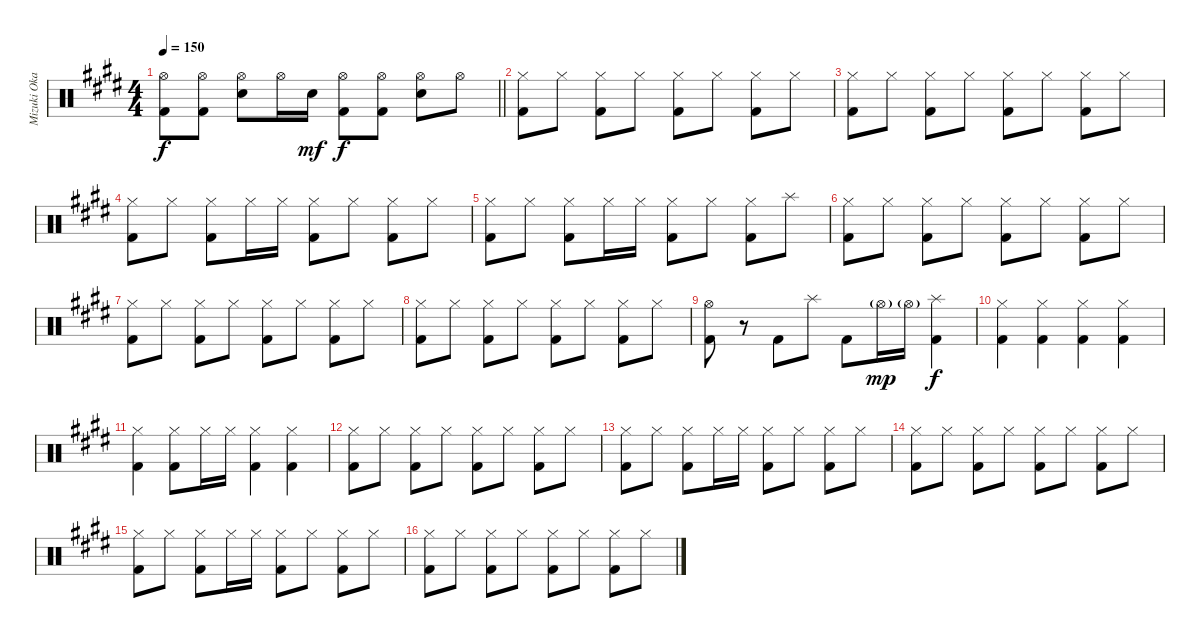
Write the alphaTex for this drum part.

\track ("Mizuki Okajima (Drums)" "Mizuki Oka") {instrument percussion}
\staff {score}
\articulation defaults
\ts (4 4)
\tempo 150
\clef neutral
\barLineRight lightlight
\ks c#minor
("Hi-Hat (open)" "Kick (hit) 2").8{dy f} ("Hi-Hat (open)" "Kick (hit) 2").8 ("Hi-Hat (open)" "Snare (hit) 2").8 "Hi-Hat (open)".16 "Snare (hit) 2".16{dy mf} ("Hi-Hat (open)" "Kick (hit) 2").8{dy f} ("Hi-Hat (open)" "Kick (hit) 2").8 ("Hi-Hat (open)" "Snare (hit) 2").8 "Hi-Hat (open)".8 |
("Hi-Hat (closed)" "Kick (hit) 2").8 "Hi-Hat (closed)".8 ("Hi-Hat (closed)" "Kick (hit) 2").8 "Hi-Hat (closed)".8 ("Hi-Hat (closed)" "Kick (hit) 2").8 "Hi-Hat (closed)".8 ("Hi-Hat (closed)" "Kick (hit) 2").8 "Hi-Hat (closed)".8 |
("Hi-Hat (closed)" "Kick (hit) 2").8 "Hi-Hat (closed)".8 ("Hi-Hat (closed)" "Kick (hit) 2").8 "Hi-Hat (closed)".8 ("Hi-Hat (closed)" "Kick (hit) 2").8 "Hi-Hat (closed)".8 ("Hi-Hat (closed)" "Kick (hit) 2").8 "Hi-Hat (closed)".8 |
("Hi-Hat (closed)" "Kick (hit) 2").8 "Hi-Hat (closed)".8 ("Hi-Hat (closed)" "Kick (hit) 2").8 "Hi-Hat (closed)".16 "Hi-Hat (closed)".16 ("Hi-Hat (closed)" "Kick (hit) 2").8 "Hi-Hat (closed)".8 ("Hi-Hat (closed)" "Kick (hit) 2").8 "Hi-Hat (closed)".8 |
("Hi-Hat (closed)" "Kick (hit) 2").8 "Hi-Hat (closed)".8 ("Hi-Hat (closed)" "Kick (hit) 2").8 "Hi-Hat (closed)".16 "Hi-Hat (closed)".16 ("Hi-Hat (closed)" "Kick (hit) 2").8 "Hi-Hat (closed)".8 ("Hi-Hat (closed)" "Kick (hit) 2").8 "Splash (hit)".8 |
("Hi-Hat (closed)" "Kick (hit) 2").8 "Hi-Hat (closed)".8 ("Hi-Hat (closed)" "Kick (hit) 2").8 "Hi-Hat (closed)".8 ("Hi-Hat (closed)" "Kick (hit) 2").8 "Hi-Hat (closed)".8 ("Hi-Hat (closed)" "Kick (hit) 2").8 "Hi-Hat (closed)".8 |
("Hi-Hat (closed)" "Kick (hit) 2").8 "Hi-Hat (closed)".8 ("Hi-Hat (closed)" "Kick (hit) 2").8 "Hi-Hat (closed)".8 ("Hi-Hat (closed)" "Kick (hit) 2").8 "Hi-Hat (closed)".8 ("Hi-Hat (closed)" "Kick (hit) 2").8 "Hi-Hat (closed)".8 |
("Hi-Hat (closed)" "Kick (hit) 2").8 "Hi-Hat (closed)".8 ("Hi-Hat (closed)" "Kick (hit) 2").8 "Hi-Hat (closed)".8 ("Hi-Hat (closed)" "Kick (hit) 2").8 "Hi-Hat (closed)".8 ("Hi-Hat (closed)" "Kick (hit) 2").8 "Hi-Hat (closed)".8 |
("Hi-Hat (open)" "Kick (hit) 2").8 r.8 "Kick (hit) 2".8 "Splash (hit)".8 "Kick (hit) 2".8 "Hi-Hat (open)"{g}.16{dy mp} "Hi-Hat (open)"{g}.16 ("Splash (hit)" "Kick (hit) 2").4{dy f} |
("Hi-Hat (closed)" "Kick (hit) 2").4 ("Hi-Hat (closed)" "Kick (hit) 2").4 ("Hi-Hat (closed)" "Kick (hit) 2").4 ("Hi-Hat (closed)" "Kick (hit) 2").4 |
("Hi-Hat (closed)" "Kick (hit) 2").4 ("Hi-Hat (closed)" "Kick (hit) 2").8 "Hi-Hat (closed)".16 "Hi-Hat (closed)".16 ("Hi-Hat (closed)" "Kick (hit) 2").4 ("Hi-Hat (closed)" "Kick (hit) 2").4 |
("Hi-Hat (closed)" "Kick (hit) 2").8 "Hi-Hat (closed)".8 ("Hi-Hat (closed)" "Kick (hit) 2").8 "Hi-Hat (closed)".8 ("Hi-Hat (closed)" "Kick (hit) 2").8 "Hi-Hat (closed)".8 ("Hi-Hat (closed)" "Kick (hit) 2").8 "Hi-Hat (closed)".8 |
("Hi-Hat (closed)" "Kick (hit) 2").8 "Hi-Hat (closed)".8 ("Hi-Hat (closed)" "Kick (hit) 2").8 "Hi-Hat (closed)".16 "Hi-Hat (closed)".16 ("Hi-Hat (closed)" "Kick (hit) 2").8 "Hi-Hat (closed)".8 ("Hi-Hat (closed)" "Kick (hit) 2").8 "Hi-Hat (closed)".8 |
("Hi-Hat (closed)" "Kick (hit) 2").8 "Hi-Hat (closed)".8 ("Hi-Hat (closed)" "Kick (hit) 2").8 "Hi-Hat (closed)".8 ("Hi-Hat (closed)" "Kick (hit) 2").8 "Hi-Hat (closed)".8 ("Hi-Hat (closed)" "Kick (hit) 2").8 "Hi-Hat (closed)".8 |
("Hi-Hat (closed)" "Kick (hit) 2").8 "Hi-Hat (closed)".8 ("Hi-Hat (closed)" "Kick (hit) 2").8 "Hi-Hat (closed)".16 "Hi-Hat (closed)".16 ("Hi-Hat (closed)" "Kick (hit) 2").8 "Hi-Hat (closed)".8 ("Hi-Hat (closed)" "Kick (hit) 2").8 "Hi-Hat (closed)".8 |
("Hi-Hat (closed)" "Kick (hit) 2").8 "Hi-Hat (closed)".8 ("Hi-Hat (closed)" "Kick (hit) 2").8 "Hi-Hat (closed)".8 ("Hi-Hat (closed)" "Kick (hit) 2").8 "Hi-Hat (closed)".8 ("Hi-Hat (closed)" "Kick (hit) 2").8 "Hi-Hat (closed)".8
